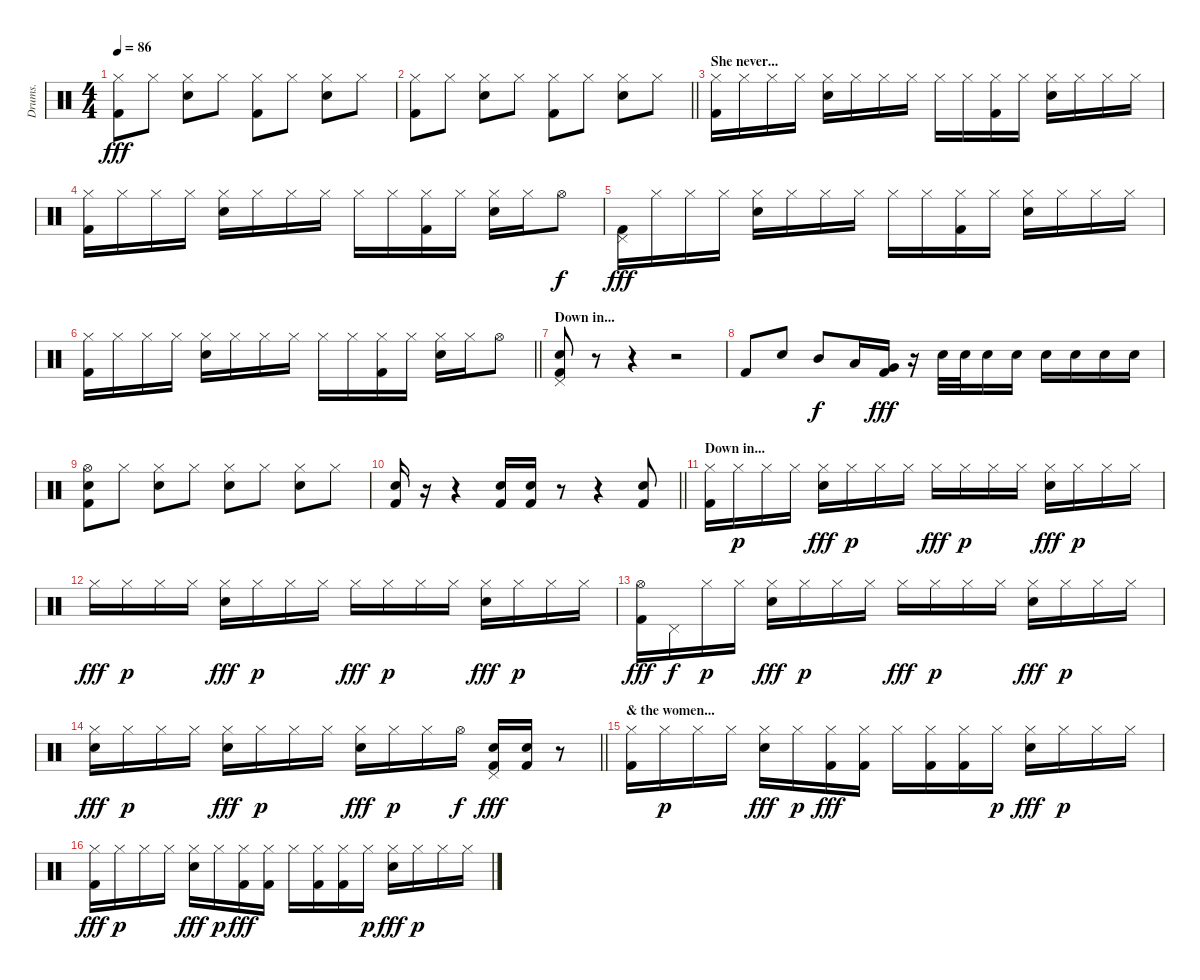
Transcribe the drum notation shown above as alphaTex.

\track ("Drums." "Drums.") {instrument percussion}
\staff {score}
\articulation defaults
\ts (4 4)
\tempo 86
\clef neutral
\ks c
("Hi-Hat (closed)" "Kick (hit) 2").8{dy fff} "Hi-Hat (closed)".8 ("Hi-Hat (closed)" "Electric Snare (hit)").8 "Hi-Hat (closed)".8 ("Hi-Hat (closed)" "Kick (hit) 2").8 "Hi-Hat (closed)".8 ("Hi-Hat (closed)" "Electric Snare (hit)").8 "Hi-Hat (closed)".8 |
\barLineRight lightlight
("Hi-Hat (closed)" "Kick (hit) 2").8 "Hi-Hat (closed)".8 ("Hi-Hat (closed)" "Electric Snare (hit)").8 "Hi-Hat (closed)".8 ("Hi-Hat (closed)" "Kick (hit) 2").8 "Hi-Hat (closed)".8 ("Hi-Hat (closed)" "Electric Snare (hit)").8 "Hi-Hat (closed)".8 |
\section ("" "She never...")
("Hi-Hat (closed)" "Kick (hit) 2").16 "Hi-Hat (closed)".16 "Hi-Hat (closed)".16 "Hi-Hat (closed)".16 ("Hi-Hat (closed)" "Electric Snare (hit)").16 "Hi-Hat (closed)".16 "Hi-Hat (closed)".16 "Hi-Hat (closed)".16 "Hi-Hat (closed)".16 "Hi-Hat (closed)".16 ("Hi-Hat (closed)" "Kick (hit) 2").16 "Hi-Hat (closed)".16 ("Hi-Hat (closed)" "Electric Snare (hit)").16 "Hi-Hat (closed)".16 "Hi-Hat (closed)".16 "Hi-Hat (closed)".16 |
("Hi-Hat (closed)" "Kick (hit) 2").16 "Hi-Hat (closed)".16 "Hi-Hat (closed)".16 "Hi-Hat (closed)".16 ("Hi-Hat (closed)" "Electric Snare (hit)").16 "Hi-Hat (closed)".16 "Hi-Hat (closed)".16 "Hi-Hat (closed)".16 "Hi-Hat (closed)".16 "Hi-Hat (closed)".16 ("Hi-Hat (closed)" "Kick (hit) 2").16 "Hi-Hat (closed)".16 ("Hi-Hat (closed)" "Electric Snare (hit)").16 "Hi-Hat (closed)".16 "Hi-Hat (open)".8{dy f} |
("Pedal Hi-Hat (hit)" "Kick (hit) 2").16{dy fff} "Hi-Hat (closed)".16 "Hi-Hat (closed)".16 "Hi-Hat (closed)".16 ("Hi-Hat (closed)" "Electric Snare (hit)").16 "Hi-Hat (closed)".16 "Hi-Hat (closed)".16 "Hi-Hat (closed)".16 "Hi-Hat (closed)".16 "Hi-Hat (closed)".16 ("Hi-Hat (closed)" "Kick (hit) 2").16 "Hi-Hat (closed)".16 ("Hi-Hat (closed)" "Electric Snare (hit)").16 "Hi-Hat (closed)".16 "Hi-Hat (closed)".16 "Hi-Hat (closed)".16 |
\barLineRight lightlight
("Hi-Hat (closed)" "Kick (hit) 2").16 "Hi-Hat (closed)".16 "Hi-Hat (closed)".16 "Hi-Hat (closed)".16 ("Hi-Hat (closed)" "Electric Snare (hit)").16 "Hi-Hat (closed)".16 "Hi-Hat (closed)".16 "Hi-Hat (closed)".16 "Hi-Hat (closed)".16 "Hi-Hat (closed)".16 ("Hi-Hat (closed)" "Kick (hit) 2").16 "Hi-Hat (closed)".16 ("Hi-Hat (closed)" "Electric Snare (hit)").16 "Hi-Hat (closed)".16 "Hi-Hat (open)".8 |
\section ("" "Down in...")
("Electric Snare (hit)" "Pedal Hi-Hat (hit)" "Kick (hit) 2").8 r.8 r.4 r.2 |
"Kick (hit) 2".8 "Electric Snare (hit)".8 "Mid Tom (hit)".8{dy f} "Low Tom (hit)".16 ("Very Low Tom (hit)" "Kick (hit) 2").16{dy fff} r.16 "Electric Snare (hit)".32 "Electric Snare (hit)".32 "Electric Snare (hit)".16 "Electric Snare (hit)".16 "Electric Snare (hit)".16 "Electric Snare (hit)".16 "Electric Snare (hit)".16 "Electric Snare (hit)".16 |
("Hi-Hat (open)" "Electric Snare (hit)" "Kick (hit) 2").8 "Hi-Hat (closed)".8 ("Hi-Hat (closed)" "Electric Snare (hit)").8 "Hi-Hat (closed)".8 ("Hi-Hat (closed)" "Electric Snare (hit)").8 "Hi-Hat (closed)".8 ("Hi-Hat (closed)" "Electric Snare (hit)").8 "Hi-Hat (closed)".8 |
\barLineRight lightlight
("Electric Snare (hit)" "Kick (hit) 2").16 r.16 r.4 ("Electric Snare (hit)" "Kick (hit) 2").16 ("Electric Snare (hit)" "Kick (hit) 2").16 r.8 r.4 ("Electric Snare (hit)" "Kick (hit) 2").8 |
\section ("" "Down in...")
("Hi-Hat (closed)" "Kick (hit) 2").16 "Hi-Hat (closed)".16{dy p} "Hi-Hat (closed)".16 "Hi-Hat (closed)".16 ("Hi-Hat (closed)" "Electric Snare (hit)").16{dy fff} "Hi-Hat (closed)".16{dy p} "Hi-Hat (closed)".16 "Hi-Hat (closed)".16 "Hi-Hat (closed)".16{dy fff} "Hi-Hat (closed)".16{dy p} "Hi-Hat (closed)".16 "Hi-Hat (closed)".16 ("Hi-Hat (closed)" "Electric Snare (hit)").16{dy fff} "Hi-Hat (closed)".16{dy p} "Hi-Hat (closed)".16 "Hi-Hat (closed)".16 |
"Hi-Hat (closed)".16{dy fff} "Hi-Hat (closed)".16{dy p} "Hi-Hat (closed)".16 "Hi-Hat (closed)".16 ("Hi-Hat (closed)" "Electric Snare (hit)").16{dy fff} "Hi-Hat (closed)".16{dy p} "Hi-Hat (closed)".16 "Hi-Hat (closed)".16 "Hi-Hat (closed)".16{dy fff} "Hi-Hat (closed)".16{dy p} "Hi-Hat (closed)".16 "Hi-Hat (closed)".16 ("Hi-Hat (closed)" "Electric Snare (hit)").16{dy fff} "Hi-Hat (closed)".16{dy p} "Hi-Hat (closed)".16 "Hi-Hat (closed)".16 |
("Hi-Hat (open)" "Kick (hit) 2").16{dy fff} "Pedal Hi-Hat (hit)".16{dy f} "Hi-Hat (closed)".16{dy p} "Hi-Hat (closed)".16 ("Hi-Hat (closed)" "Electric Snare (hit)").16{dy fff} "Hi-Hat (closed)".16{dy p} "Hi-Hat (closed)".16 "Hi-Hat (closed)".16 "Hi-Hat (closed)".16{dy fff} "Hi-Hat (closed)".16{dy p} "Hi-Hat (closed)".16 "Hi-Hat (closed)".16 ("Hi-Hat (closed)" "Electric Snare (hit)").16{dy fff} "Hi-Hat (closed)".16{dy p} "Hi-Hat (closed)".16 "Hi-Hat (closed)".16 |
\barLineRight lightlight
("Hi-Hat (closed)" "Electric Snare (hit)").16{dy fff} "Hi-Hat (closed)".16{dy p} "Hi-Hat (closed)".16 "Hi-Hat (closed)".16 ("Hi-Hat (closed)" "Electric Snare (hit)").16{dy fff} "Hi-Hat (closed)".16{dy p} "Hi-Hat (closed)".16 "Hi-Hat (closed)".16 ("Hi-Hat (closed)" "Electric Snare (hit)").16{dy fff} "Hi-Hat (closed)".16{dy p} "Hi-Hat (closed)".16 "Hi-Hat (open)".16{dy f} ("Electric Snare (hit)" "Pedal Hi-Hat (hit)" "Kick (hit) 2").16{dy fff} ("Electric Snare (hit)" "Kick (hit) 2").16 r.8 |
\section ("" "& the women...")
("Hi-Hat (closed)" "Kick (hit) 2").16 "Hi-Hat (closed)".16{dy p} "Hi-Hat (closed)".16 "Hi-Hat (closed)".16 ("Hi-Hat (closed)" "Electric Snare (hit)").16{dy fff} "Hi-Hat (closed)".16{dy p} ("Hi-Hat (closed)" "Kick (hit) 2").16{dy fff} ("Hi-Hat (closed)" "Kick (hit) 2").16 "Hi-Hat (closed)".16 ("Hi-Hat (closed)" "Kick (hit) 2").16 ("Hi-Hat (closed)" "Kick (hit) 2").16 "Hi-Hat (closed)".16{dy p} ("Hi-Hat (closed)" "Electric Snare (hit)").16{dy fff} "Hi-Hat (closed)".16{dy p} "Hi-Hat (closed)".16 "Hi-Hat (closed)".16 |
("Hi-Hat (closed)" "Kick (hit) 2").16{dy fff} "Hi-Hat (closed)".16{dy p} "Hi-Hat (closed)".16 "Hi-Hat (closed)".16 ("Hi-Hat (closed)" "Electric Snare (hit)").16{dy fff} "Hi-Hat (closed)".16{dy p} ("Hi-Hat (closed)" "Kick (hit) 2").16{dy fff} ("Hi-Hat (closed)" "Kick (hit) 2").16 "Hi-Hat (closed)".16 ("Hi-Hat (closed)" "Kick (hit) 2").16 ("Hi-Hat (closed)" "Kick (hit) 2").16 "Hi-Hat (closed)".16{dy p} ("Hi-Hat (closed)" "Electric Snare (hit)").16{dy fff} "Hi-Hat (closed)".16{dy p} "Hi-Hat (closed)".16 "Hi-Hat (closed)".16
